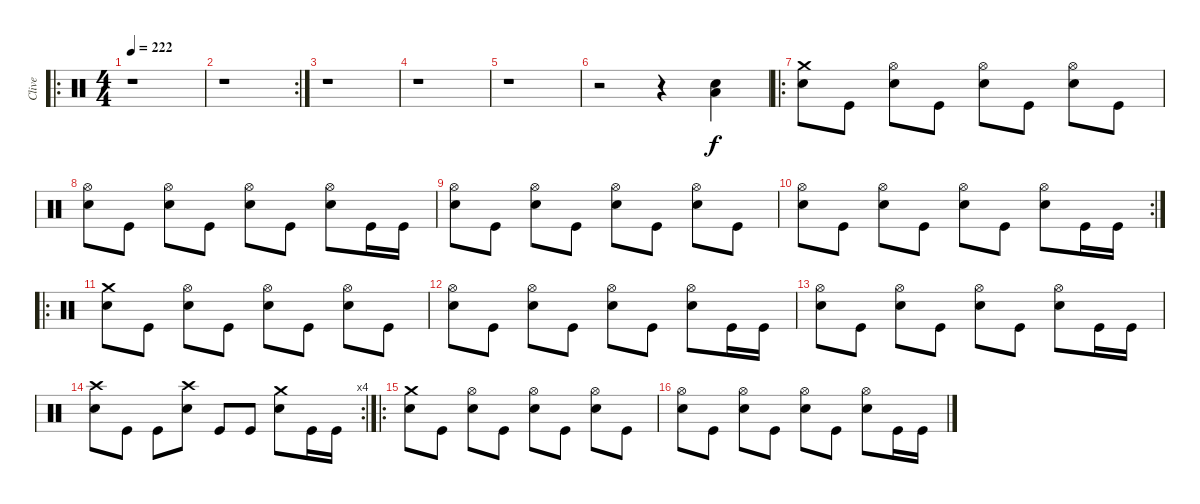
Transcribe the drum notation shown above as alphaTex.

\track ("Clive" "Clive") {instrument percussion}
\staff {score}
\articulation defaults
\ro
\ts (4 4)
\tempo 222
\clef neutral
\ks c
r.1{dy f} |
\rc 2
r.1 |
r.1 |
r.1 |
r.1 |
r.2 r.4 ("Snare (hit) 2" "Low Floor Tom (hit)").4 |
\ro
("Crash medium (hit)" "Snare (hit) 2").8 "Kick (hit)".8 ("Hi-Hat (open)" "Snare (hit) 2").8 "Kick (hit)".8 ("Hi-Hat (open)" "Snare (hit) 2").8 "Kick (hit)".8 ("Hi-Hat (open)" "Snare (hit) 2").8 "Kick (hit)".8 |
("Hi-Hat (open)" "Snare (hit) 2").8 "Kick (hit)".8 ("Hi-Hat (open)" "Snare (hit) 2").8 "Kick (hit)".8 ("Hi-Hat (open)" "Snare (hit) 2").8 "Kick (hit)".8 ("Hi-Hat (open)" "Snare (hit) 2").8 "Kick (hit)".16 "Kick (hit)".16 |
("Hi-Hat (open)" "Snare (hit) 2").8 "Kick (hit)".8 ("Hi-Hat (open)" "Snare (hit) 2").8 "Kick (hit)".8 ("Hi-Hat (open)" "Snare (hit) 2").8 "Kick (hit)".8 ("Hi-Hat (open)" "Snare (hit) 2").8 "Kick (hit)".8 |
\rc 2
("Hi-Hat (open)" "Snare (hit) 2").8 "Kick (hit)".8 ("Hi-Hat (open)" "Snare (hit) 2").8 "Kick (hit)".8 ("Hi-Hat (open)" "Snare (hit) 2").8 "Kick (hit)".8 ("Hi-Hat (open)" "Snare (hit) 2").8 "Kick (hit)".16 "Kick (hit)".16 |
\ro
("Crash medium (hit)" "Snare (hit) 2").8 "Kick (hit)".8 ("Hi-Hat (open)" "Snare (hit) 2").8 "Kick (hit)".8 ("Hi-Hat (open)" "Snare (hit) 2").8 "Kick (hit)".8 ("Hi-Hat (open)" "Snare (hit) 2").8 "Kick (hit)".8 |
("Hi-Hat (open)" "Snare (hit) 2").8 "Kick (hit)".8 ("Hi-Hat (open)" "Snare (hit) 2").8 "Kick (hit)".8 ("Hi-Hat (open)" "Snare (hit) 2").8 "Kick (hit)".8 ("Hi-Hat (open)" "Snare (hit) 2").8 "Kick (hit)".16 "Kick (hit)".16 |
("Hi-Hat (open)" "Snare (hit) 2").8 "Kick (hit)".8 ("Hi-Hat (open)" "Snare (hit) 2").8 "Kick (hit)".8 ("Hi-Hat (open)" "Snare (hit) 2").8 "Kick (hit)".8 ("Hi-Hat (open)" "Snare (hit) 2").8 "Kick (hit)".16 "Kick (hit)".16 |
\rc 4
("Crash high (hit)" "Snare (hit) 2").8 "Kick (hit)".8 "Kick (hit)".8 ("Crash high (hit)" "Snare (hit) 2").8 "Kick (hit)".8 "Kick (hit)".8 ("Crash medium (hit)" "Snare (hit) 2").8 "Kick (hit)".16 "Kick (hit)".16 |
\ro
("Crash medium (hit)" "Snare (hit) 2").8 "Kick (hit)".8 ("Hi-Hat (open)" "Snare (hit) 2").8 "Kick (hit)".8 ("Hi-Hat (open)" "Snare (hit) 2").8 "Kick (hit)".8 ("Hi-Hat (open)" "Snare (hit) 2").8 "Kick (hit)".8 |
("Hi-Hat (open)" "Snare (hit) 2").8 "Kick (hit)".8 ("Hi-Hat (open)" "Snare (hit) 2").8 "Kick (hit)".8 ("Hi-Hat (open)" "Snare (hit) 2").8 "Kick (hit)".8 ("Hi-Hat (open)" "Snare (hit) 2").8 "Kick (hit)".16 "Kick (hit)".16
